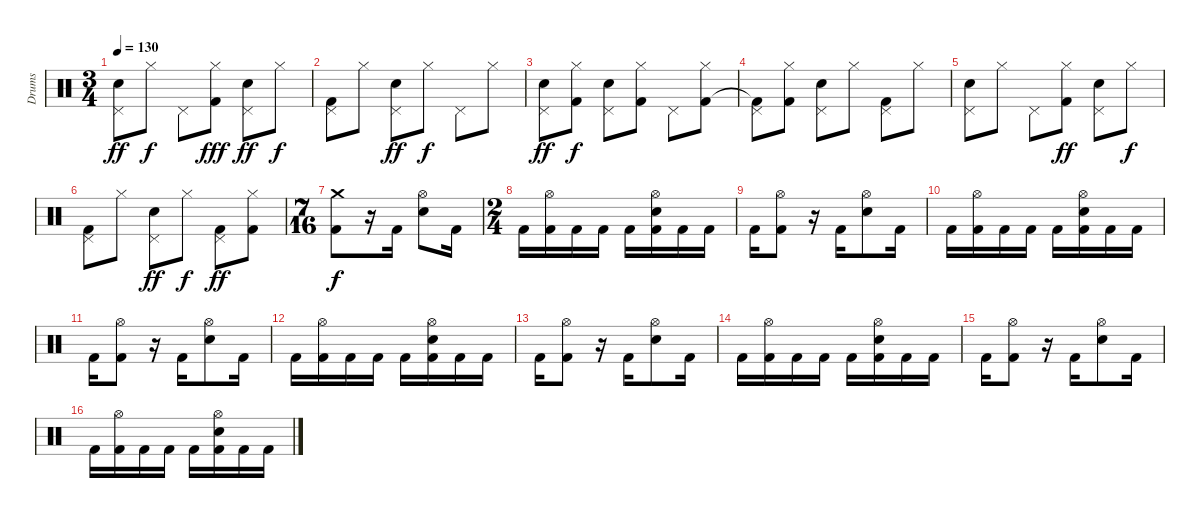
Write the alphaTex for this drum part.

\track ("Drums" "Drums") {instrument percussion}
\staff {score}
\articulation defaults
\ts (3 4)
\tempo 130
\clef neutral
\ks c
("Electric Snare (hit)" "Pedal Hi-Hat (hit)").8{dy ff} "Hi-Hat (closed)".8{dy f} "Pedal Hi-Hat (hit)".8 ("Kick (hit) 2" "Hi-Hat (closed)").8{dy fff} ("Electric Snare (hit)" "Pedal Hi-Hat (hit)").8{dy ff} "Hi-Hat (closed)".8{dy f} |
("Kick (hit) 2" "Pedal Hi-Hat (hit)").8 "Hi-Hat (closed)".8 ("Electric Snare (hit)" "Pedal Hi-Hat (hit)").8{dy ff} "Hi-Hat (closed)".8{dy f} "Pedal Hi-Hat (hit)".8 "Hi-Hat (closed)".8 |
("Electric Snare (hit)" "Pedal Hi-Hat (hit)").8{dy ff} ("Kick (hit) 2" "Hi-Hat (closed)").8{dy f} ("Electric Snare (hit)" "Pedal Hi-Hat (hit)").8 ("Kick (hit) 2" "Hi-Hat (closed)").8 "Pedal Hi-Hat (hit)".8 ("Kick (hit) 2" "Hi-Hat (closed)").8 |
("Kick (hit) 2"{t} "Pedal Hi-Hat (hit)").8 ("Kick (hit) 2" "Hi-Hat (closed)").8 ("Electric Snare (hit)" "Pedal Hi-Hat (hit)").8 "Hi-Hat (closed)".8 ("Kick (hit) 2" "Pedal Hi-Hat (hit)").8 "Hi-Hat (closed)".8 |
("Electric Snare (hit)" "Pedal Hi-Hat (hit)").8 "Hi-Hat (closed)".8 "Pedal Hi-Hat (hit)".8 ("Kick (hit) 2" "Hi-Hat (closed)").8{dy ff} ("Electric Snare (hit)" "Pedal Hi-Hat (hit)").8 "Hi-Hat (closed)".8{dy f} |
("Kick (hit) 2" "Pedal Hi-Hat (hit)").8 "Hi-Hat (closed)".8 ("Electric Snare (hit)" "Pedal Hi-Hat (hit)").8{dy ff} "Hi-Hat (closed)".8{dy f} ("Kick (hit) 2" "Pedal Hi-Hat (hit)").8{dy ff} ("Kick (hit) 2" "Hi-Hat (closed)").8 |
\ts (7 16)
("Kick (hit) 2" "Crash medium (hit)").8{dy f} r.16 "Kick (hit) 2".16 ("Electric Snare (hit)" "Hi-Hat (open)").8 "Kick (hit) 2".16 |
\ts (2 4)
"Kick (hit) 2".16 ("Kick (hit) 2" "Hi-Hat (open)").16 "Kick (hit) 2".16 "Kick (hit) 2".16 "Kick (hit) 2".16 ("Kick (hit) 2" "Hi-Hat (open)" "Electric Snare (hit)").16 "Kick (hit) 2".16 "Kick (hit) 2".16 |
"Kick (hit) 2".16 ("Kick (hit) 2" "Hi-Hat (open)").8 r.16 "Kick (hit) 2".16 ("Electric Snare (hit)" "Hi-Hat (open)").8 "Kick (hit) 2".16 |
"Kick (hit) 2".16 ("Kick (hit) 2" "Hi-Hat (open)").16 "Kick (hit) 2".16 "Kick (hit) 2".16 "Kick (hit) 2".16 ("Kick (hit) 2" "Hi-Hat (open)" "Electric Snare (hit)").16 "Kick (hit) 2".16 "Kick (hit) 2".16 |
"Kick (hit) 2".16 ("Kick (hit) 2" "Hi-Hat (open)").8 r.16 "Kick (hit) 2".16 ("Electric Snare (hit)" "Hi-Hat (open)").8 "Kick (hit) 2".16 |
"Kick (hit) 2".16 ("Kick (hit) 2" "Hi-Hat (open)").16 "Kick (hit) 2".16 "Kick (hit) 2".16 "Kick (hit) 2".16 ("Kick (hit) 2" "Hi-Hat (open)" "Electric Snare (hit)").16 "Kick (hit) 2".16 "Kick (hit) 2".16 |
"Kick (hit) 2".16 ("Kick (hit) 2" "Hi-Hat (open)").8 r.16 "Kick (hit) 2".16 ("Electric Snare (hit)" "Hi-Hat (open)").8 "Kick (hit) 2".16 |
"Kick (hit) 2".16 ("Kick (hit) 2" "Hi-Hat (open)").16 "Kick (hit) 2".16 "Kick (hit) 2".16 "Kick (hit) 2".16 ("Kick (hit) 2" "Hi-Hat (open)" "Electric Snare (hit)").16 "Kick (hit) 2".16 "Kick (hit) 2".16 |
"Kick (hit) 2".16 ("Kick (hit) 2" "Hi-Hat (open)").8 r.16 "Kick (hit) 2".16 ("Electric Snare (hit)" "Hi-Hat (open)").8 "Kick (hit) 2".16 |
"Kick (hit) 2".16 ("Kick (hit) 2" "Hi-Hat (open)").16 "Kick (hit) 2".16 "Kick (hit) 2".16 "Kick (hit) 2".16 ("Kick (hit) 2" "Hi-Hat (open)" "Electric Snare (hit)").16 "Kick (hit) 2".16 "Kick (hit) 2".16
